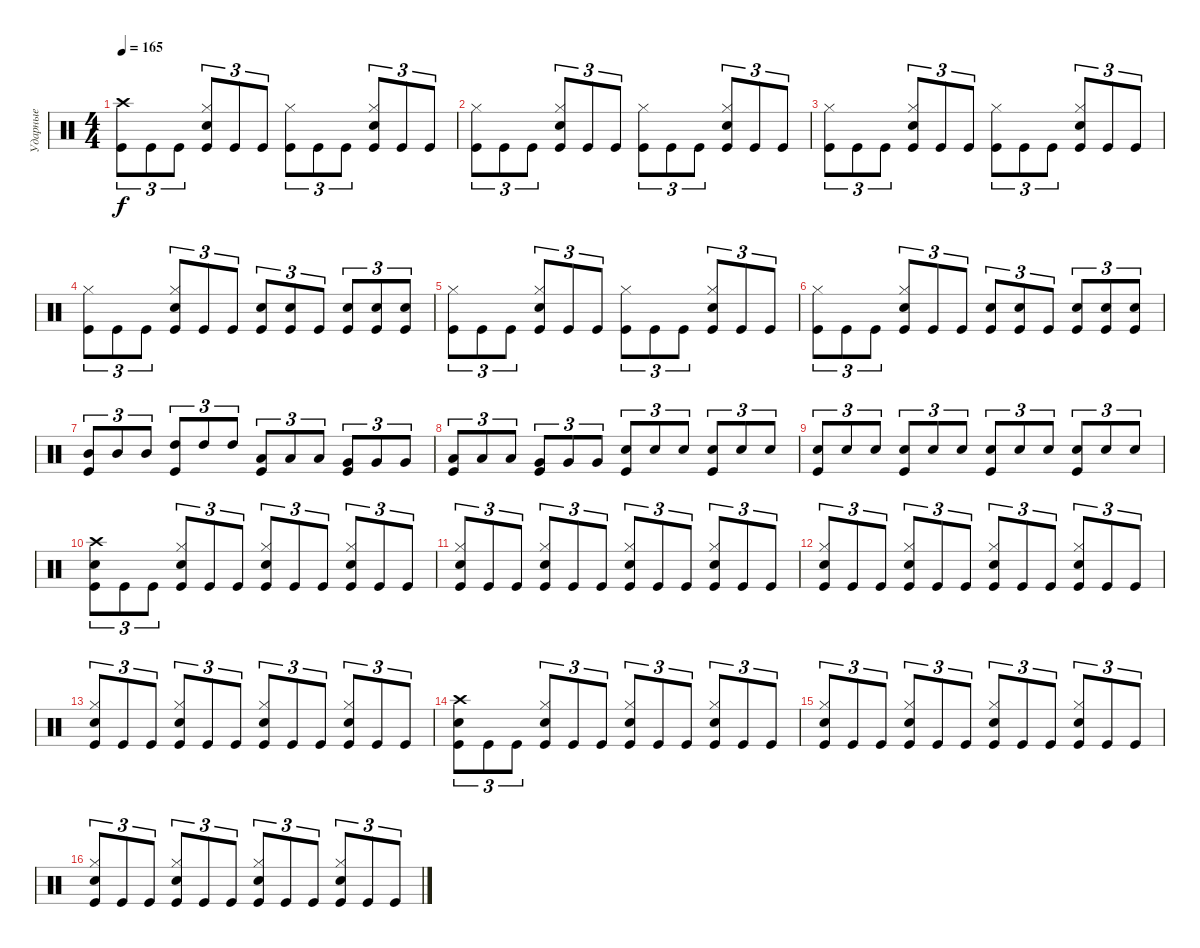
\track ("Ударные" "Ударные") {instrument percussion}
\staff {score}
\articulation defaults
\ts (4 4)
\tempo 165
\clef neutral
\ks c
("Crash high (hit)" "Kick (hit)").8{tu (3 2) dy f} "Kick (hit)".8{tu (3 2)} "Kick (hit)".8{tu (3 2)} ("Hi-Hat (closed)" "Electric Snare (hit)" "Kick (hit)").8{tu (3 2)} "Kick (hit)".8{tu (3 2)} "Kick (hit)".8{tu (3 2)} ("Hi-Hat (closed)" "Kick (hit)").8{tu (3 2)} "Kick (hit)".8{tu (3 2)} "Kick (hit)".8{tu (3 2)} ("Hi-Hat (closed)" "Electric Snare (hit)" "Kick (hit)").8{tu (3 2)} "Kick (hit)".8{tu (3 2)} "Kick (hit)".8{tu (3 2)} |
("Hi-Hat (closed)" "Kick (hit)").8{tu (3 2)} "Kick (hit)".8{tu (3 2)} "Kick (hit)".8{tu (3 2)} ("Hi-Hat (closed)" "Electric Snare (hit)" "Kick (hit)").8{tu (3 2)} "Kick (hit)".8{tu (3 2)} "Kick (hit)".8{tu (3 2)} ("Hi-Hat (closed)" "Kick (hit)").8{tu (3 2)} "Kick (hit)".8{tu (3 2)} "Kick (hit)".8{tu (3 2)} ("Hi-Hat (closed)" "Electric Snare (hit)" "Kick (hit)").8{tu (3 2)} "Kick (hit)".8{tu (3 2)} "Kick (hit)".8{tu (3 2)} |
("Hi-Hat (closed)" "Kick (hit)").8{tu (3 2)} "Kick (hit)".8{tu (3 2)} "Kick (hit)".8{tu (3 2)} ("Hi-Hat (closed)" "Electric Snare (hit)" "Kick (hit)").8{tu (3 2)} "Kick (hit)".8{tu (3 2)} "Kick (hit)".8{tu (3 2)} ("Hi-Hat (closed)" "Kick (hit)").8{tu (3 2)} "Kick (hit)".8{tu (3 2)} "Kick (hit)".8{tu (3 2)} ("Hi-Hat (closed)" "Electric Snare (hit)" "Kick (hit)").8{tu (3 2)} "Kick (hit)".8{tu (3 2)} "Kick (hit)".8{tu (3 2)} |
("Hi-Hat (closed)" "Kick (hit)").8{tu (3 2)} "Kick (hit)".8{tu (3 2)} "Kick (hit)".8{tu (3 2)} ("Hi-Hat (closed)" "Electric Snare (hit)" "Kick (hit)").8{tu (3 2)} "Kick (hit)".8{tu (3 2)} "Kick (hit)".8{tu (3 2)} ("Electric Snare (hit)" "Kick (hit)").8{tu (3 2)} ("Electric Snare (hit)" "Kick (hit)").8{tu (3 2)} "Kick (hit)".8{tu (3 2)} ("Electric Snare (hit)" "Kick (hit)").8{tu (3 2)} ("Electric Snare (hit)" "Kick (hit)").8{tu (3 2)} ("Electric Snare (hit)" "Kick (hit)").8{tu (3 2)} |
("Hi-Hat (closed)" "Kick (hit)").8{tu (3 2)} "Kick (hit)".8{tu (3 2)} "Kick (hit)".8{tu (3 2)} ("Hi-Hat (closed)" "Electric Snare (hit)" "Kick (hit)").8{tu (3 2)} "Kick (hit)".8{tu (3 2)} "Kick (hit)".8{tu (3 2)} ("Hi-Hat (closed)" "Kick (hit)").8{tu (3 2)} "Kick (hit)".8{tu (3 2)} "Kick (hit)".8{tu (3 2)} ("Hi-Hat (closed)" "Electric Snare (hit)" "Kick (hit)").8{tu (3 2)} "Kick (hit)".8{tu (3 2)} "Kick (hit)".8{tu (3 2)} |
("Hi-Hat (closed)" "Kick (hit)").8{tu (3 2)} "Kick (hit)".8{tu (3 2)} "Kick (hit)".8{tu (3 2)} ("Hi-Hat (closed)" "Electric Snare (hit)" "Kick (hit)").8{tu (3 2)} "Kick (hit)".8{tu (3 2)} "Kick (hit)".8{tu (3 2)} ("Electric Snare (hit)" "Kick (hit)").8{tu (3 2)} ("Electric Snare (hit)" "Kick (hit)").8{tu (3 2)} "Kick (hit)".8{tu (3 2)} ("Electric Snare (hit)" "Kick (hit)").8{tu (3 2)} ("Electric Snare (hit)" "Kick (hit)").8{tu (3 2)} ("Electric Snare (hit)" "Kick (hit)").8{tu (3 2)} |
("Mid Tom (hit)" "Kick (hit)").8{tu (3 2)} "Mid Tom (hit)".8{tu (3 2)} "Mid Tom (hit)".8{tu (3 2)} ("High Tom (hit)" "Kick (hit)").8{tu (3 2)} "High Tom (hit)".8{tu (3 2)} "High Tom (hit)".8{tu (3 2)} ("Low Tom (hit)" "Kick (hit)").8{tu (3 2)} "Low Tom (hit)".8{tu (3 2)} "Low Tom (hit)".8{tu (3 2)} ("Very Low Tom (hit)" "Kick (hit)").8{tu (3 2)} "Very Low Tom (hit)".8{tu (3 2)} "Very Low Tom (hit)".8{tu (3 2)} |
("Low Tom (hit)" "Kick (hit)").8{tu (3 2)} "Low Tom (hit)".8{tu (3 2)} "Low Tom (hit)".8{tu (3 2)} ("Very Low Tom (hit)" "Kick (hit)").8{tu (3 2)} "Very Low Tom (hit)".8{tu (3 2)} "Very Low Tom (hit)".8{tu (3 2)} ("Electric Snare (hit)" "Kick (hit)").8{tu (3 2)} "Electric Snare (hit)".8{tu (3 2)} "Electric Snare (hit)".8{tu (3 2)} ("Electric Snare (hit)" "Kick (hit)").8{tu (3 2)} "Electric Snare (hit)".8{tu (3 2)} "Electric Snare (hit)".8{tu (3 2)} |
("Electric Snare (hit)" "Kick (hit)").8{tu (3 2)} "Electric Snare (hit)".8{tu (3 2)} "Electric Snare (hit)".8{tu (3 2)} ("Electric Snare (hit)" "Kick (hit)").8{tu (3 2)} "Electric Snare (hit)".8{tu (3 2)} "Electric Snare (hit)".8{tu (3 2)} ("Electric Snare (hit)" "Kick (hit)").8{tu (3 2)} "Electric Snare (hit)".8{tu (3 2)} "Electric Snare (hit)".8{tu (3 2)} ("Electric Snare (hit)" "Kick (hit)").8{tu (3 2)} "Electric Snare (hit)".8{tu (3 2)} "Electric Snare (hit)".8{tu (3 2)} |
("Crash high (hit)" "Electric Snare (hit)" "Kick (hit)").8{tu (3 2)} "Kick (hit)".8{tu (3 2)} "Kick (hit)".8{tu (3 2)} ("Hi-Hat (closed)" "Electric Snare (hit)" "Kick (hit)").8{tu (3 2)} "Kick (hit)".8{tu (3 2)} "Kick (hit)".8{tu (3 2)} ("Hi-Hat (closed)" "Electric Snare (hit)" "Kick (hit)").8{tu (3 2)} "Kick (hit)".8{tu (3 2)} "Kick (hit)".8{tu (3 2)} ("Hi-Hat (closed)" "Electric Snare (hit)" "Kick (hit)").8{tu (3 2)} "Kick (hit)".8{tu (3 2)} "Kick (hit)".8{tu (3 2)} |
("Hi-Hat (closed)" "Electric Snare (hit)" "Kick (hit)").8{tu (3 2)} "Kick (hit)".8{tu (3 2)} "Kick (hit)".8{tu (3 2)} ("Hi-Hat (closed)" "Electric Snare (hit)" "Kick (hit)").8{tu (3 2)} "Kick (hit)".8{tu (3 2)} "Kick (hit)".8{tu (3 2)} ("Hi-Hat (closed)" "Electric Snare (hit)" "Kick (hit)").8{tu (3 2)} "Kick (hit)".8{tu (3 2)} "Kick (hit)".8{tu (3 2)} ("Hi-Hat (closed)" "Electric Snare (hit)" "Kick (hit)").8{tu (3 2)} "Kick (hit)".8{tu (3 2)} "Kick (hit)".8{tu (3 2)} |
("Hi-Hat (closed)" "Electric Snare (hit)" "Kick (hit)").8{tu (3 2)} "Kick (hit)".8{tu (3 2)} "Kick (hit)".8{tu (3 2)} ("Hi-Hat (closed)" "Electric Snare (hit)" "Kick (hit)").8{tu (3 2)} "Kick (hit)".8{tu (3 2)} "Kick (hit)".8{tu (3 2)} ("Hi-Hat (closed)" "Electric Snare (hit)" "Kick (hit)").8{tu (3 2)} "Kick (hit)".8{tu (3 2)} "Kick (hit)".8{tu (3 2)} ("Hi-Hat (closed)" "Electric Snare (hit)" "Kick (hit)").8{tu (3 2)} "Kick (hit)".8{tu (3 2)} "Kick (hit)".8{tu (3 2)} |
("Hi-Hat (closed)" "Electric Snare (hit)" "Kick (hit)").8{tu (3 2)} "Kick (hit)".8{tu (3 2)} "Kick (hit)".8{tu (3 2)} ("Hi-Hat (closed)" "Electric Snare (hit)" "Kick (hit)").8{tu (3 2)} "Kick (hit)".8{tu (3 2)} "Kick (hit)".8{tu (3 2)} ("Hi-Hat (closed)" "Electric Snare (hit)" "Kick (hit)").8{tu (3 2)} "Kick (hit)".8{tu (3 2)} "Kick (hit)".8{tu (3 2)} ("Hi-Hat (closed)" "Electric Snare (hit)" "Kick (hit)").8{tu (3 2)} "Kick (hit)".8{tu (3 2)} "Kick (hit)".8{tu (3 2)} |
("Crash high (hit)" "Electric Snare (hit)" "Kick (hit)").8{tu (3 2)} "Kick (hit)".8{tu (3 2)} "Kick (hit)".8{tu (3 2)} ("Hi-Hat (closed)" "Electric Snare (hit)" "Kick (hit)").8{tu (3 2)} "Kick (hit)".8{tu (3 2)} "Kick (hit)".8{tu (3 2)} ("Hi-Hat (closed)" "Electric Snare (hit)" "Kick (hit)").8{tu (3 2)} "Kick (hit)".8{tu (3 2)} "Kick (hit)".8{tu (3 2)} ("Hi-Hat (closed)" "Electric Snare (hit)" "Kick (hit)").8{tu (3 2)} "Kick (hit)".8{tu (3 2)} "Kick (hit)".8{tu (3 2)} |
("Hi-Hat (closed)" "Electric Snare (hit)" "Kick (hit)").8{tu (3 2)} "Kick (hit)".8{tu (3 2)} "Kick (hit)".8{tu (3 2)} ("Hi-Hat (closed)" "Electric Snare (hit)" "Kick (hit)").8{tu (3 2)} "Kick (hit)".8{tu (3 2)} "Kick (hit)".8{tu (3 2)} ("Hi-Hat (closed)" "Electric Snare (hit)" "Kick (hit)").8{tu (3 2)} "Kick (hit)".8{tu (3 2)} "Kick (hit)".8{tu (3 2)} ("Hi-Hat (closed)" "Electric Snare (hit)" "Kick (hit)").8{tu (3 2)} "Kick (hit)".8{tu (3 2)} "Kick (hit)".8{tu (3 2)} |
("Hi-Hat (closed)" "Electric Snare (hit)" "Kick (hit)").8{tu (3 2)} "Kick (hit)".8{tu (3 2)} "Kick (hit)".8{tu (3 2)} ("Hi-Hat (closed)" "Electric Snare (hit)" "Kick (hit)").8{tu (3 2)} "Kick (hit)".8{tu (3 2)} "Kick (hit)".8{tu (3 2)} ("Hi-Hat (closed)" "Electric Snare (hit)" "Kick (hit)").8{tu (3 2)} "Kick (hit)".8{tu (3 2)} "Kick (hit)".8{tu (3 2)} ("Hi-Hat (closed)" "Electric Snare (hit)" "Kick (hit)").8{tu (3 2)} "Kick (hit)".8{tu (3 2)} "Kick (hit)".8{tu (3 2)}
